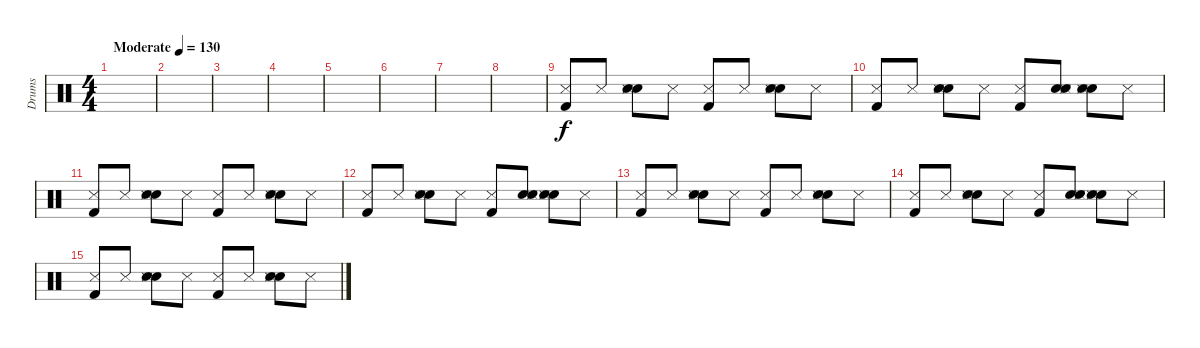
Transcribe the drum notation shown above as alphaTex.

\track ("Drums" "Drums") {instrument percussion}
\staff {score}
\articulation defaults
\ts (4 4)
\tempo (130 "Moderate")
\clef neutral
\ks c
|
|
|
|
|
|
|
|
("Snare (side stick) 3" "Kick (hit) 2").8 "Snare (side stick) 3".8 ("Hand Clap (hit)" "Snare (hit) 2" "Snare (side stick) 3").8 "Snare (side stick) 3".8 ("Snare (side stick) 3" "Kick (hit) 2").8 "Snare (side stick) 3".8 ("Hand Clap (hit)" "Snare (hit) 2" "Snare (side stick) 3").8 "Snare (side stick) 3".8 |
("Snare (side stick) 3" "Kick (hit) 2").8 "Snare (side stick) 3".8 ("Hand Clap (hit)" "Snare (hit) 2" "Snare (side stick) 3").8 "Snare (side stick) 3".8 ("Snare (side stick) 3" "Kick (hit) 2").8 ("Hand Clap (hit)" "Snare (hit) 2" "Snare (side stick) 3").8 ("Hand Clap (hit)" "Snare (hit) 2" "Snare (side stick) 3").8 "Snare (side stick) 3".8 |
("Snare (side stick) 3" "Kick (hit) 2").8 "Snare (side stick) 3".8 ("Hand Clap (hit)" "Snare (hit) 2" "Snare (side stick) 3").8 "Snare (side stick) 3".8 ("Snare (side stick) 3" "Kick (hit) 2").8 "Snare (side stick) 3".8 ("Hand Clap (hit)" "Snare (hit) 2" "Snare (side stick) 3").8 "Snare (side stick) 3".8 |
("Snare (side stick) 3" "Kick (hit) 2").8 "Snare (side stick) 3".8 ("Hand Clap (hit)" "Snare (hit) 2" "Snare (side stick) 3").8 "Snare (side stick) 3".8 ("Snare (side stick) 3" "Kick (hit) 2").8 ("Hand Clap (hit)" "Snare (hit) 2" "Snare (side stick) 3").8 ("Hand Clap (hit)" "Snare (hit) 2" "Snare (side stick) 3").8 "Snare (side stick) 3".8 |
("Snare (side stick) 3" "Kick (hit) 2").8 "Snare (side stick) 3".8 ("Hand Clap (hit)" "Snare (hit) 2" "Snare (side stick) 3").8 "Snare (side stick) 3".8 ("Snare (side stick) 3" "Kick (hit) 2").8 "Snare (side stick) 3".8 ("Hand Clap (hit)" "Snare (hit) 2" "Snare (side stick) 3").8 "Snare (side stick) 3".8 |
("Snare (side stick) 3" "Kick (hit) 2").8 "Snare (side stick) 3".8 ("Hand Clap (hit)" "Snare (hit) 2" "Snare (side stick) 3").8 "Snare (side stick) 3".8 ("Snare (side stick) 3" "Kick (hit) 2").8 ("Hand Clap (hit)" "Snare (hit) 2" "Snare (side stick) 3").8 ("Hand Clap (hit)" "Snare (hit) 2" "Snare (side stick) 3").8 "Snare (side stick) 3".8 |
("Snare (side stick) 3" "Kick (hit) 2").8 "Snare (side stick) 3".8 ("Hand Clap (hit)" "Snare (hit) 2" "Snare (side stick) 3").8 "Snare (side stick) 3".8 ("Snare (side stick) 3" "Kick (hit) 2").8 "Snare (side stick) 3".8 ("Hand Clap (hit)" "Snare (hit) 2" "Snare (side stick) 3").8 "Snare (side stick) 3".8
